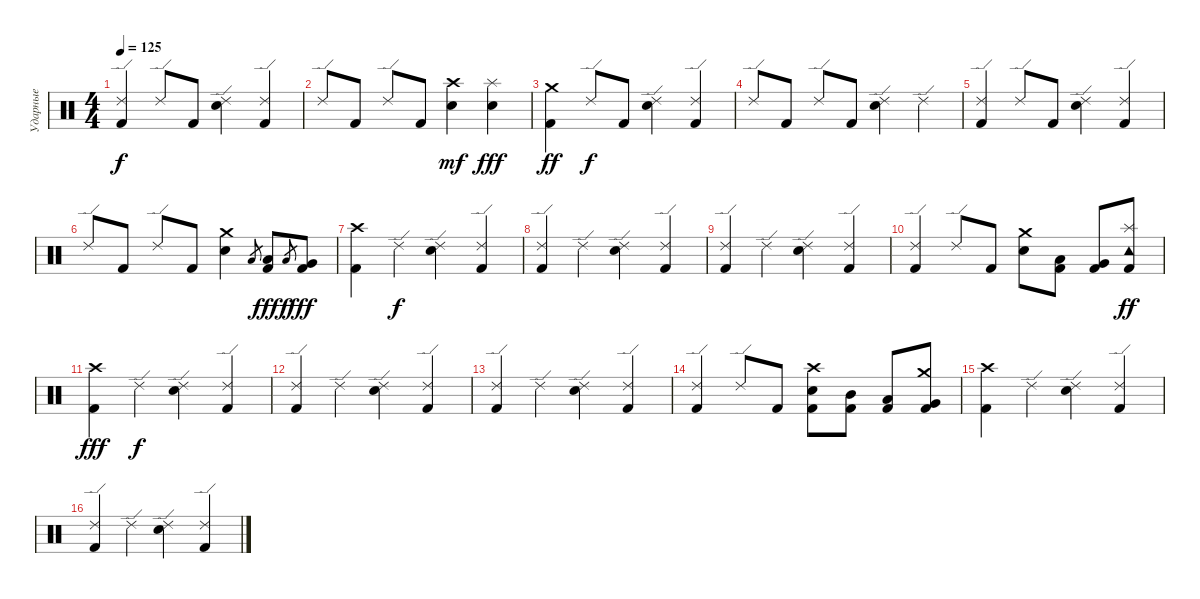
\track ("Ударные" "Ударные") {instrument percussion}
\staff {score}
\articulation defaults
\ts (4 4)
\tempo 125
\clef neutral
\ks c
("Ride (edge) 2" "Kick (hit) 2").4{dy f} "Ride (edge) 2".8 "Kick (hit) 2".8 ("Ride (edge) 2" "Electric Snare (hit)").4 ("Ride (edge) 2" "Kick (hit) 2").4 |
"Ride (edge) 2".8 "Kick (hit) 2".8 "Ride (edge) 2".8 "Kick (hit) 2".8 ("Crash high (hit)" "Electric Snare (hit)").4{dy mf} ("Splash (hit)" "Electric Snare (hit)").4{dy fff} |
("Crash medium (hit)" "Kick (hit) 2").4{dy ff} "Ride (edge) 2".8{dy f} "Kick (hit) 2".8 ("Ride (edge) 2" "Electric Snare (hit)").4 ("Ride (edge) 2" "Kick (hit) 2").4 |
"Ride (edge) 2".8 "Kick (hit) 2".8 "Ride (edge) 2".8 "Kick (hit) 2".8 ("Ride (edge) 2" "Electric Snare (hit)").4 "Ride (edge) 2".4 |
("Ride (edge) 2" "Kick (hit) 2").4 "Ride (edge) 2".8 "Kick (hit) 2".8 ("Ride (edge) 2" "Electric Snare (hit)").4 ("Ride (edge) 2" "Kick (hit) 2").4 |
"Ride (edge) 2".8 "Kick (hit) 2".8 "Ride (edge) 2".8 "Kick (hit) 2".8 ("Crash medium (hit)" "Electric Snare (hit)").4 "Low Floor Tom (hit)".8{gr} ("Low Tom (hit)" "Kick (hit) 2").8{dy fff} "Low Floor Tom (hit)".8{gr dy f} ("Very Low Tom (hit)" "Kick (hit) 2").8{dy fff} |
("Crash high (hit)" "Kick (hit) 2").4 "Ride (edge) 2".4{dy f} ("Ride (edge) 2" "Electric Snare (hit)").4 ("Ride (edge) 2" "Kick (hit) 2").4 |
("Ride (edge) 2" "Kick (hit) 2").4 "Ride (edge) 2".4 ("Ride (edge) 2" "Electric Snare (hit)").4 ("Ride (edge) 2" "Kick (hit) 2").4 |
("Ride (edge) 2" "Kick (hit) 2").4 "Ride (edge) 2".4 ("Ride (edge) 2" "Electric Snare (hit)").4 ("Ride (edge) 2" "Kick (hit) 2").4 |
("Ride (edge) 2" "Kick (hit) 2").4 "Ride (edge) 2".8 "Kick (hit) 2".8 ("Crash medium (hit)" "Electric Snare (hit)").8 ("Low Tom (hit)" "Kick (hit) 2").8 ("Very Low Tom (hit)" "Kick (hit) 2").8 ("Tambourine (hit)" "Kick (hit) 2" "Splash (hit)").8{dy ff} |
("Crash high (hit)" "Kick (hit) 2").4{dy fff} "Ride (edge) 2".4{dy f} ("Ride (edge) 2" "Electric Snare (hit)").4 ("Ride (edge) 2" "Kick (hit) 2").4 |
("Ride (edge) 2" "Kick (hit) 2").4 "Ride (edge) 2".4 ("Ride (edge) 2" "Electric Snare (hit)").4 ("Ride (edge) 2" "Kick (hit) 2").4 |
("Ride (edge) 2" "Kick (hit) 2").4 "Ride (edge) 2".4 ("Ride (edge) 2" "Electric Snare (hit)").4 ("Ride (edge) 2" "Kick (hit) 2").4 |
("Ride (edge) 2" "Kick (hit) 2").4 "Ride (edge) 2".8 "Kick (hit) 2".8 ("Crash high (hit)" "Electric Snare (hit)" "Kick (hit) 2").8 ("Mid Tom (hit)" "Kick (hit) 2").8 ("Low Tom (hit)" "Kick (hit) 2").8 ("Crash medium (hit)" "Very Low Tom (hit)" "Kick (hit) 2").8 |
("Crash high (hit)" "Kick (hit) 2").4 "Ride (edge) 2".4 ("Ride (edge) 2" "Electric Snare (hit)").4 ("Ride (edge) 2" "Kick (hit) 2").4 |
("Ride (edge) 2" "Kick (hit) 2").4 "Ride (edge) 2".4 ("Ride (edge) 2" "Electric Snare (hit)").4 ("Ride (edge) 2" "Kick (hit) 2").4
